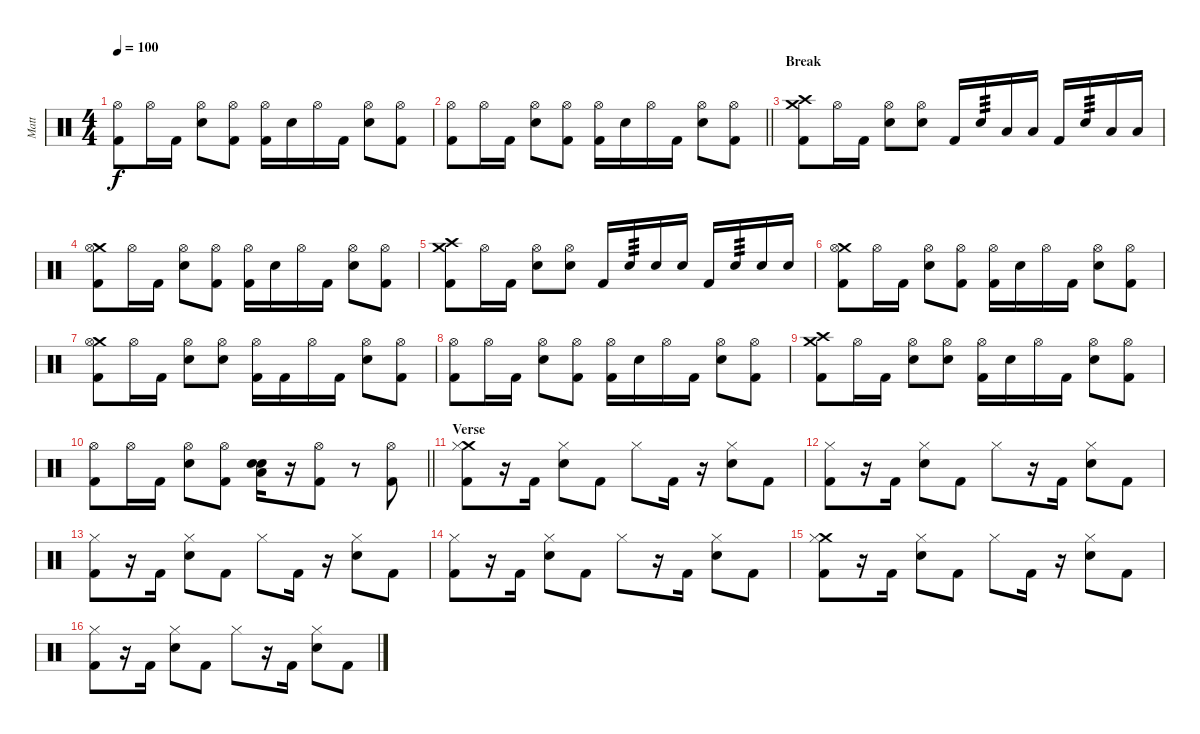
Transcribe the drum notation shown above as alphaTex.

\track ("Matt" "Matt") {instrument percussion}
\staff {score}
\articulation defaults
\ts (4 4)
\tempo 100
\clef neutral
\ks c
("Hi-Hat (open)" "Kick (hit) 2").8{dy f} "Hi-Hat (open)".16 "Kick (hit) 2".16 ("Hi-Hat (open)" "Snare (hit) 2").8 ("Hi-Hat (open)" "Kick (hit) 2").8 ("Hi-Hat (open)" "Kick (hit) 2").16 "Snare (hit) 2".16 "Hi-Hat (open)".16 "Kick (hit) 2".16 ("Hi-Hat (open)" "Snare (hit) 2").8 ("Hi-Hat (open)" "Kick (hit) 2").8 |
\barLineRight lightlight
("Hi-Hat (open)" "Kick (hit) 2").8 "Hi-Hat (open)".16 "Kick (hit) 2".16 ("Hi-Hat (open)" "Snare (hit) 2").8 ("Hi-Hat (open)" "Kick (hit) 2").8 ("Hi-Hat (open)" "Kick (hit) 2").16 "Snare (hit) 2".16 "Hi-Hat (open)".16 "Kick (hit) 2".16 ("Hi-Hat (open)" "Snare (hit) 2").8 ("Hi-Hat (open)" "Kick (hit) 2").8 |
\section ("" "Break")
("Crash medium (hit)" "Crash high (hit)" "Kick (hit) 2").8 "Hi-Hat (open)".16 "Kick (hit) 2".16 ("Hi-Hat (open)" "Snare (hit) 2").8 ("Hi-Hat (open)" "Snare (hit) 2").8 "Kick (hit) 2".16 "Snare (hit) 2".16{tp 3} "Low Tom (hit)".16 "Low Floor Tom (hit)".16 "Kick (hit) 2".16 "Snare (hit) 2".16{tp 3} "Low Tom (hit)".16 "Low Floor Tom (hit)".16 |
("Crash medium (hit)" "Hi-Hat (open)" "Kick (hit) 2").8 "Hi-Hat (open)".16 "Kick (hit) 2".16 ("Hi-Hat (open)" "Snare (hit) 2").8 ("Hi-Hat (open)" "Kick (hit) 2").8 ("Hi-Hat (open)" "Kick (hit) 2").16 "Snare (hit) 2".16 "Hi-Hat (open)".16 "Kick (hit) 2".16 ("Hi-Hat (open)" "Snare (hit) 2").8 ("Hi-Hat (open)" "Kick (hit) 2").8 |
("Crash medium (hit)" "Crash high (hit)" "Kick (hit) 2").8 "Hi-Hat (open)".16 "Kick (hit) 2".16 ("Hi-Hat (open)" "Snare (hit) 2").8 ("Hi-Hat (open)" "Snare (hit) 2").8 "Kick (hit) 2".16 "Snare (hit) 2".16{tp 3} "Snare (hit) 2".16 "Snare (hit) 2".16 "Kick (hit) 2".16 "Snare (hit) 2".16{tp 3} "Snare (hit) 2".16 "Snare (hit) 2".16 |
("Crash medium (hit)" "Hi-Hat (open)" "Kick (hit) 2").8 "Hi-Hat (open)".16 "Kick (hit) 2".16 ("Hi-Hat (open)" "Snare (hit) 2").8 ("Hi-Hat (open)" "Kick (hit) 2").8 ("Hi-Hat (open)" "Kick (hit) 2").16 "Snare (hit) 2".16 "Hi-Hat (open)".16 "Kick (hit) 2".16 ("Hi-Hat (open)" "Snare (hit) 2").8 ("Hi-Hat (open)" "Kick (hit) 2").8 |
("Crash medium (hit)" "Hi-Hat (open)" "Kick (hit) 2").8 "Hi-Hat (open)".16 "Kick (hit) 2".16 ("Hi-Hat (open)" "Snare (hit) 2").8 ("Hi-Hat (open)" "Snare (hit) 2").8 ("Hi-Hat (open)" "Kick (hit) 2").16 "Kick (hit) 2".16 "Hi-Hat (open)".16 "Kick (hit) 2".16 ("Hi-Hat (open)" "Snare (hit) 2").8 ("Hi-Hat (open)" "Kick (hit) 2").8 |
("Hi-Hat (open)" "Kick (hit) 2").8 "Hi-Hat (open)".16 "Kick (hit) 2".16 ("Hi-Hat (open)" "Snare (hit) 2").8 ("Hi-Hat (open)" "Kick (hit) 2").8 ("Hi-Hat (open)" "Kick (hit) 2").16 "Snare (hit) 2".16 "Hi-Hat (open)".16 "Kick (hit) 2".16 ("Hi-Hat (open)" "Snare (hit) 2").8 ("Hi-Hat (open)" "Kick (hit) 2").8 |
("Crash medium (hit)" "Crash high (hit)" "Kick (hit) 2").8 "Hi-Hat (open)".16 "Kick (hit) 2".16 ("Hi-Hat (open)" "Snare (hit) 2").8 ("Hi-Hat (open)" "Snare (hit) 2").8 ("Hi-Hat (open)" "Kick (hit) 2").16 "Snare (hit) 2".16 "Hi-Hat (open)".16 "Kick (hit) 2".16 ("Hi-Hat (open)" "Snare (hit) 2").8 ("Hi-Hat (open)" "Kick (hit) 2").8 |
\barLineRight lightlight
("Hi-Hat (open)" "Kick (hit) 2").8 "Hi-Hat (open)".16 "Kick (hit) 2".16 ("Hi-Hat (open)" "Snare (hit) 2").8 ("Hi-Hat (open)" "Kick (hit) 2").8 ("Low Tom (hit)" "Snare (hit) 2" "Snare (hit) 2").16 r.16 ("Hi-Hat (open)" "Kick (hit) 2").8 r.8 ("Hi-Hat (open)" "Kick (hit) 2").8 |
\section ("" "Verse")
("Crash medium (hit)" "Hi-Hat (closed)" "Kick (hit) 2").8 r.16 "Kick (hit) 2".16 ("Hi-Hat (closed)" "Snare (hit) 2").8 "Kick (hit) 2".8 "Hi-Hat (closed)".8 "Kick (hit) 2".16 r.16 ("Hi-Hat (closed)" "Snare (hit) 2").8 "Kick (hit) 2".8 |
("Hi-Hat (closed)" "Kick (hit) 2").8 r.16 "Kick (hit) 2".16 ("Hi-Hat (closed)" "Snare (hit) 2").8 "Kick (hit) 2".8 "Hi-Hat (closed)".8 r.16 "Kick (hit) 2".16 ("Hi-Hat (closed)" "Snare (hit) 2").8 "Kick (hit) 2".8 |
("Hi-Hat (closed)" "Kick (hit) 2").8 r.16 "Kick (hit) 2".16 ("Hi-Hat (closed)" "Snare (hit) 2").8 "Kick (hit) 2".8 "Hi-Hat (closed)".8 "Kick (hit) 2".16 r.16 ("Hi-Hat (closed)" "Snare (hit) 2").8 "Kick (hit) 2".8 |
("Hi-Hat (closed)" "Kick (hit) 2").8 r.16 "Kick (hit) 2".16 ("Hi-Hat (closed)" "Snare (hit) 2").8 "Kick (hit) 2".8 "Hi-Hat (closed)".8 r.16 "Kick (hit) 2".16 ("Hi-Hat (closed)" "Snare (hit) 2").8 "Kick (hit) 2".8 |
("Crash medium (hit)" "Hi-Hat (closed)" "Kick (hit) 2").8 r.16 "Kick (hit) 2".16 ("Hi-Hat (closed)" "Snare (hit) 2").8 "Kick (hit) 2".8 "Hi-Hat (closed)".8 "Kick (hit) 2".16 r.16 ("Hi-Hat (closed)" "Snare (hit) 2").8 "Kick (hit) 2".8 |
("Hi-Hat (closed)" "Kick (hit) 2").8 r.16 "Kick (hit) 2".16 ("Hi-Hat (closed)" "Snare (hit) 2").8 "Kick (hit) 2".8 "Hi-Hat (closed)".8 r.16 "Kick (hit) 2".16 ("Hi-Hat (closed)" "Snare (hit) 2").8 "Kick (hit) 2".8
